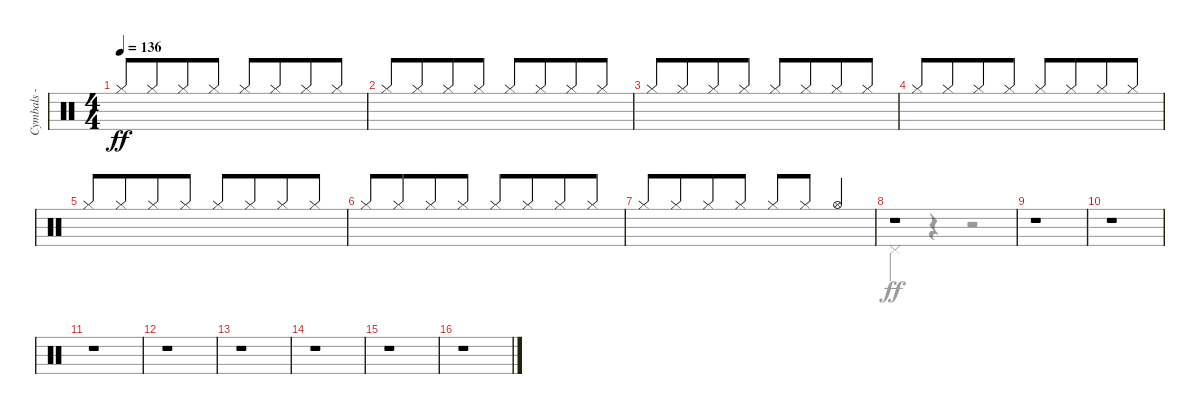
\track ("Cymbals - hi-hat" "Cymbals - ") {instrument percussion}
\staff {score}
\articulation defaults
\voice
\ts (4 4)
\tempo 136
\clef neutral
\ks c "Hi-Hat (closed)".8{dy ff beam Up} "Hi-Hat (closed)".8{beam Up beam merge} "Hi-Hat (closed)".8{beam Up} "Hi-Hat (closed)".8{beam Up} "Hi-Hat (closed)".8{beam Up} "Hi-Hat (closed)".8{beam Up beam merge} "Hi-Hat (closed)".8{beam Up} "Hi-Hat (closed)".8{beam Up}
|
"Hi-Hat (closed)".8{beam Up} "Hi-Hat (closed)".8{beam Up beam merge} "Hi-Hat (closed)".8{beam Up} "Hi-Hat (closed)".8{beam Up} "Hi-Hat (closed)".8{beam Up} "Hi-Hat (closed)".8{beam Up beam merge} "Hi-Hat (closed)".8{beam Up} "Hi-Hat (closed)".8{beam Up} |
"Hi-Hat (closed)".8{beam Up} "Hi-Hat (closed)".8{beam Up beam merge} "Hi-Hat (closed)".8{beam Up} "Hi-Hat (closed)".8{beam Up} "Hi-Hat (closed)".8{beam Up} "Hi-Hat (closed)".8{beam Up beam merge} "Hi-Hat (closed)".8{beam Up} "Hi-Hat (closed)".8{beam Up} |
"Hi-Hat (closed)".8{beam Up} "Hi-Hat (closed)".8{beam Up beam merge} "Hi-Hat (closed)".8{beam Up} "Hi-Hat (closed)".8{beam Up} "Hi-Hat (closed)".8{beam Up} "Hi-Hat (closed)".8{beam Up beam merge} "Hi-Hat (closed)".8{beam Up} "Hi-Hat (closed)".8{beam Up} |
"Hi-Hat (closed)".8{beam Up} "Hi-Hat (closed)".8{beam Up beam merge} "Hi-Hat (closed)".8{beam Up} "Hi-Hat (closed)".8{beam Up} "Hi-Hat (closed)".8{beam Up} "Hi-Hat (closed)".8{beam Up beam merge} "Hi-Hat (closed)".8{beam Up} "Hi-Hat (closed)".8{beam Up} |
"Hi-Hat (closed)".8{beam Up} "Hi-Hat (closed)".8{beam Up beam merge} "Hi-Hat (closed)".8{beam Up} "Hi-Hat (closed)".8{beam Up} "Hi-Hat (closed)".8{beam Up} "Hi-Hat (closed)".8{beam Up beam merge} "Hi-Hat (closed)".8{beam Up} "Hi-Hat (closed)".8{beam Up} |
"Hi-Hat (closed)".8{beam Up} "Hi-Hat (closed)".8{beam Up beam merge} "Hi-Hat (closed)".8{beam Up} "Hi-Hat (closed)".8{beam Up} "Hi-Hat (closed)".8{beam Up} "Hi-Hat (closed)".8{beam Up} "Hi-Hat (open)".4{beam Up} |
r.1 |
r.1 |
r.1 |
r.1 |
r.1 |
r.1 |
r.1 |
r.1 |
r.1
\voice
\clef neutral
\ottava regular
\simile none
\ks c
|
|
|
|
|
|
|
"Pedal Hi-Hat (hit)".4 r.4 r.2 |
|
|
|
|
|
|
|
